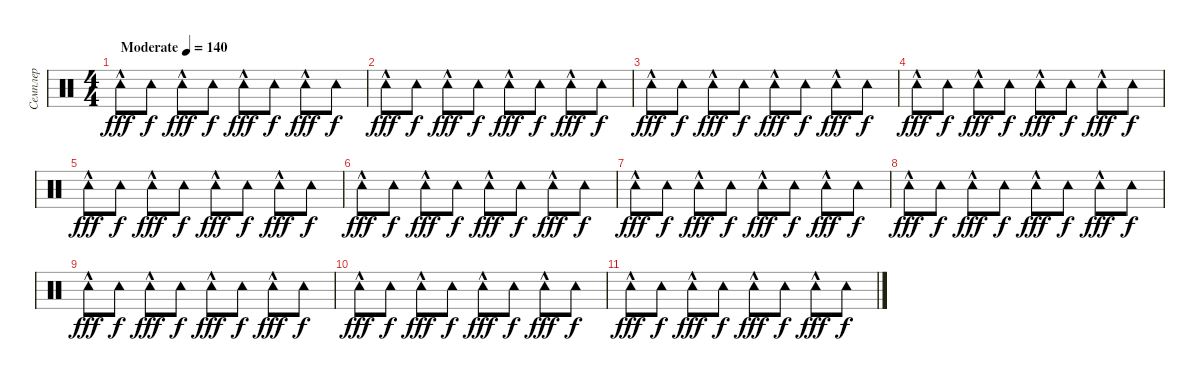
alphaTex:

\track ("Семплер" "Семплер") {instrument percussion}
\staff {score}
\articulation defaults
\ts (4 4)
\tempo (140 "Moderate")
\clef neutral
\ks c "Tambourine (hit)"{hac}.8{dy fff} "Tambourine (hit)".8{dy f} "Tambourine (hit)"{hac}.8{dy fff} "Tambourine (hit)".8{dy f} "Tambourine (hit)"{hac}.8{dy fff} "Tambourine (hit)".8{dy f} "Tambourine (hit)"{hac}.8{dy fff} "Tambourine (hit)".8{dy f}
|
"Tambourine (hit)"{hac}.8{dy fff} "Tambourine (hit)".8{dy f} "Tambourine (hit)"{hac}.8{dy fff} "Tambourine (hit)".8{dy f} "Tambourine (hit)"{hac}.8{dy fff} "Tambourine (hit)".8{dy f} "Tambourine (hit)"{hac}.8{dy fff} "Tambourine (hit)".8{dy f} |
"Tambourine (hit)"{hac}.8{dy fff} "Tambourine (hit)".8{dy f} "Tambourine (hit)"{hac}.8{dy fff} "Tambourine (hit)".8{dy f} "Tambourine (hit)"{hac}.8{dy fff} "Tambourine (hit)".8{dy f} "Tambourine (hit)"{hac}.8{dy fff} "Tambourine (hit)".8{dy f} |
"Tambourine (hit)"{hac}.8{dy fff} "Tambourine (hit)".8{dy f} "Tambourine (hit)"{hac}.8{dy fff} "Tambourine (hit)".8{dy f} "Tambourine (hit)"{hac}.8{dy fff} "Tambourine (hit)".8{dy f} "Tambourine (hit)"{hac}.8{dy fff} "Tambourine (hit)".8{dy f} |
"Tambourine (hit)"{hac}.8{dy fff} "Tambourine (hit)".8{dy f} "Tambourine (hit)"{hac}.8{dy fff} "Tambourine (hit)".8{dy f} "Tambourine (hit)"{hac}.8{dy fff} "Tambourine (hit)".8{dy f} "Tambourine (hit)"{hac}.8{dy fff} "Tambourine (hit)".8{dy f} |
"Tambourine (hit)"{hac}.8{dy fff} "Tambourine (hit)".8{dy f} "Tambourine (hit)"{hac}.8{dy fff} "Tambourine (hit)".8{dy f} "Tambourine (hit)"{hac}.8{dy fff} "Tambourine (hit)".8{dy f} "Tambourine (hit)"{hac}.8{dy fff} "Tambourine (hit)".8{dy f} |
"Tambourine (hit)"{hac}.8{dy fff} "Tambourine (hit)".8{dy f} "Tambourine (hit)"{hac}.8{dy fff} "Tambourine (hit)".8{dy f} "Tambourine (hit)"{hac}.8{dy fff} "Tambourine (hit)".8{dy f} "Tambourine (hit)"{hac}.8{dy fff} "Tambourine (hit)".8{dy f} |
"Tambourine (hit)"{hac}.8{dy fff} "Tambourine (hit)".8{dy f} "Tambourine (hit)"{hac}.8{dy fff} "Tambourine (hit)".8{dy f} "Tambourine (hit)"{hac}.8{dy fff} "Tambourine (hit)".8{dy f} "Tambourine (hit)"{hac}.8{dy fff} "Tambourine (hit)".8{dy f} |
"Tambourine (hit)"{hac}.8{dy fff} "Tambourine (hit)".8{dy f} "Tambourine (hit)"{hac}.8{dy fff} "Tambourine (hit)".8{dy f} "Tambourine (hit)"{hac}.8{dy fff} "Tambourine (hit)".8{dy f} "Tambourine (hit)"{hac}.8{dy fff} "Tambourine (hit)".8{dy f} |
"Tambourine (hit)"{hac}.8{dy fff} "Tambourine (hit)".8{dy f} "Tambourine (hit)"{hac}.8{dy fff} "Tambourine (hit)".8{dy f} "Tambourine (hit)"{hac}.8{dy fff} "Tambourine (hit)".8{dy f} "Tambourine (hit)"{hac}.8{dy fff} "Tambourine (hit)".8{dy f} |
"Tambourine (hit)"{hac}.8{dy fff} "Tambourine (hit)".8{dy f} "Tambourine (hit)"{hac}.8{dy fff} "Tambourine (hit)".8{dy f} "Tambourine (hit)"{hac}.8{dy fff} "Tambourine (hit)".8{dy f} "Tambourine (hit)"{hac}.8{dy fff} "Tambourine (hit)".8{dy f}
